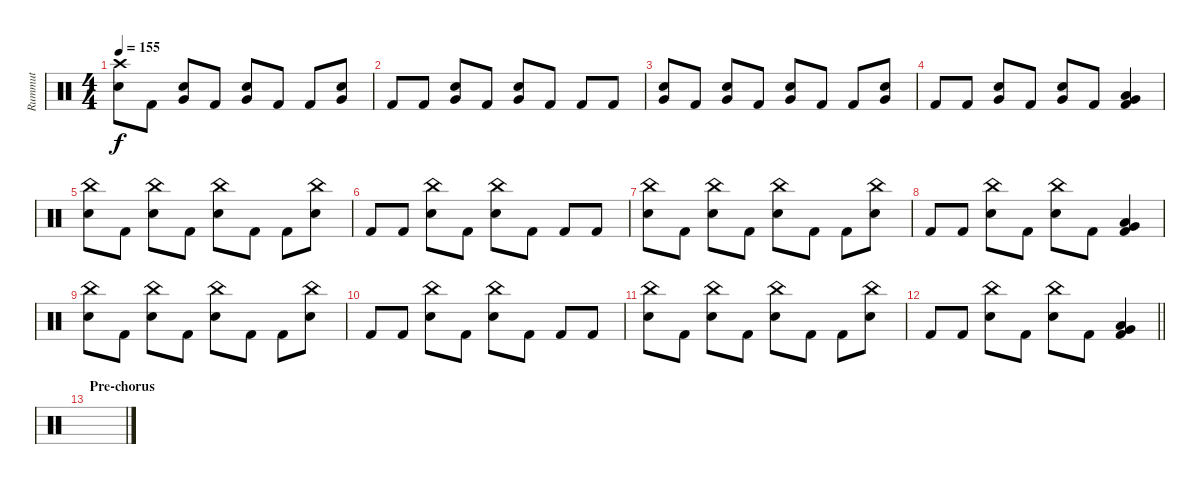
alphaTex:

\track ("Rummut" "Rummut") {instrument percussion}
\staff {score}
\articulation defaults
\ts (4 4)
\tempo 155
\clef neutral
\ks c
("Crash high (hit)" "Electric Snare (hit)").8{dy f} "Kick (hit) 2".8 ("Very Low Tom (hit)" "Electric Snare (hit)").8 "Kick (hit) 2".8 ("Very Low Tom (hit)" "Electric Snare (hit)").8 "Kick (hit) 2".8 "Kick (hit) 2".8 ("Very Low Tom (hit)" "Electric Snare (hit)").8 |
"Kick (hit) 2".8 "Kick (hit) 2".8 ("Very Low Tom (hit)" "Electric Snare (hit)").8 "Kick (hit) 2".8 ("Very Low Tom (hit)" "Electric Snare (hit)").8 "Kick (hit) 2".8 "Kick (hit) 2".8 "Kick (hit) 2".8 |
("Very Low Tom (hit)" "Electric Snare (hit)").8 "Kick (hit) 2".8 ("Very Low Tom (hit)" "Electric Snare (hit)").8 "Kick (hit) 2".8 ("Very Low Tom (hit)" "Electric Snare (hit)").8 "Kick (hit) 2".8 "Kick (hit) 2".8 ("Very Low Tom (hit)" "Electric Snare (hit)").8 |
"Kick (hit) 2".8 "Kick (hit) 2".8 ("Very Low Tom (hit)" "Electric Snare (hit)").8 "Kick (hit) 2".8 ("Very Low Tom (hit)" "Electric Snare (hit)").8 "Kick (hit) 2".8 ("Low Tom (hit)" "Very Low Tom (hit)" "Kick (hit) 2").4 |
("China (hit)" "Electric Snare (hit)").8 "Kick (hit) 2".8 ("China (hit)" "Electric Snare (hit)").8 "Kick (hit) 2".8 ("China (hit)" "Electric Snare (hit)").8 "Kick (hit) 2".8 "Kick (hit) 2".8 ("China (hit)" "Electric Snare (hit)").8 |
"Kick (hit) 2".8 "Kick (hit) 2".8 ("China (hit)" "Electric Snare (hit)").8 "Kick (hit) 2".8 ("China (hit)" "Electric Snare (hit)").8 "Kick (hit) 2".8 "Kick (hit) 2".8 "Kick (hit) 2".8 |
("China (hit)" "Electric Snare (hit)").8 "Kick (hit) 2".8 ("China (hit)" "Electric Snare (hit)").8 "Kick (hit) 2".8 ("China (hit)" "Electric Snare (hit)").8 "Kick (hit) 2".8 "Kick (hit) 2".8 ("China (hit)" "Electric Snare (hit)").8 |
"Kick (hit) 2".8 "Kick (hit) 2".8 ("China (hit)" "Electric Snare (hit)").8 "Kick (hit) 2".8 ("China (hit)" "Electric Snare (hit)").8 "Kick (hit) 2".8 ("Low Tom (hit)" "Very Low Tom (hit)" "Kick (hit) 2").4 |
("China (hit)" "Electric Snare (hit)").8 "Kick (hit) 2".8 ("China (hit)" "Electric Snare (hit)").8 "Kick (hit) 2".8 ("China (hit)" "Electric Snare (hit)").8 "Kick (hit) 2".8 "Kick (hit) 2".8 ("China (hit)" "Electric Snare (hit)").8 |
"Kick (hit) 2".8 "Kick (hit) 2".8 ("China (hit)" "Electric Snare (hit)").8 "Kick (hit) 2".8 ("China (hit)" "Electric Snare (hit)").8 "Kick (hit) 2".8 "Kick (hit) 2".8 "Kick (hit) 2".8 |
("China (hit)" "Electric Snare (hit)").8 "Kick (hit) 2".8 ("China (hit)" "Electric Snare (hit)").8 "Kick (hit) 2".8 ("China (hit)" "Electric Snare (hit)").8 "Kick (hit) 2".8 "Kick (hit) 2".8 ("China (hit)" "Electric Snare (hit)").8 |
\barLineRight lightlight "Kick (hit) 2".8 "Kick (hit) 2".8
("China (hit)" "Electric Snare (hit)").8 "Kick (hit) 2".8 ("China (hit)" "Electric Snare (hit)").8 "Kick (hit) 2".8 ("Low Tom (hit)" "Very Low Tom (hit)" "Kick (hit) 2").4 |
\section ("" "Pre-chorus")
